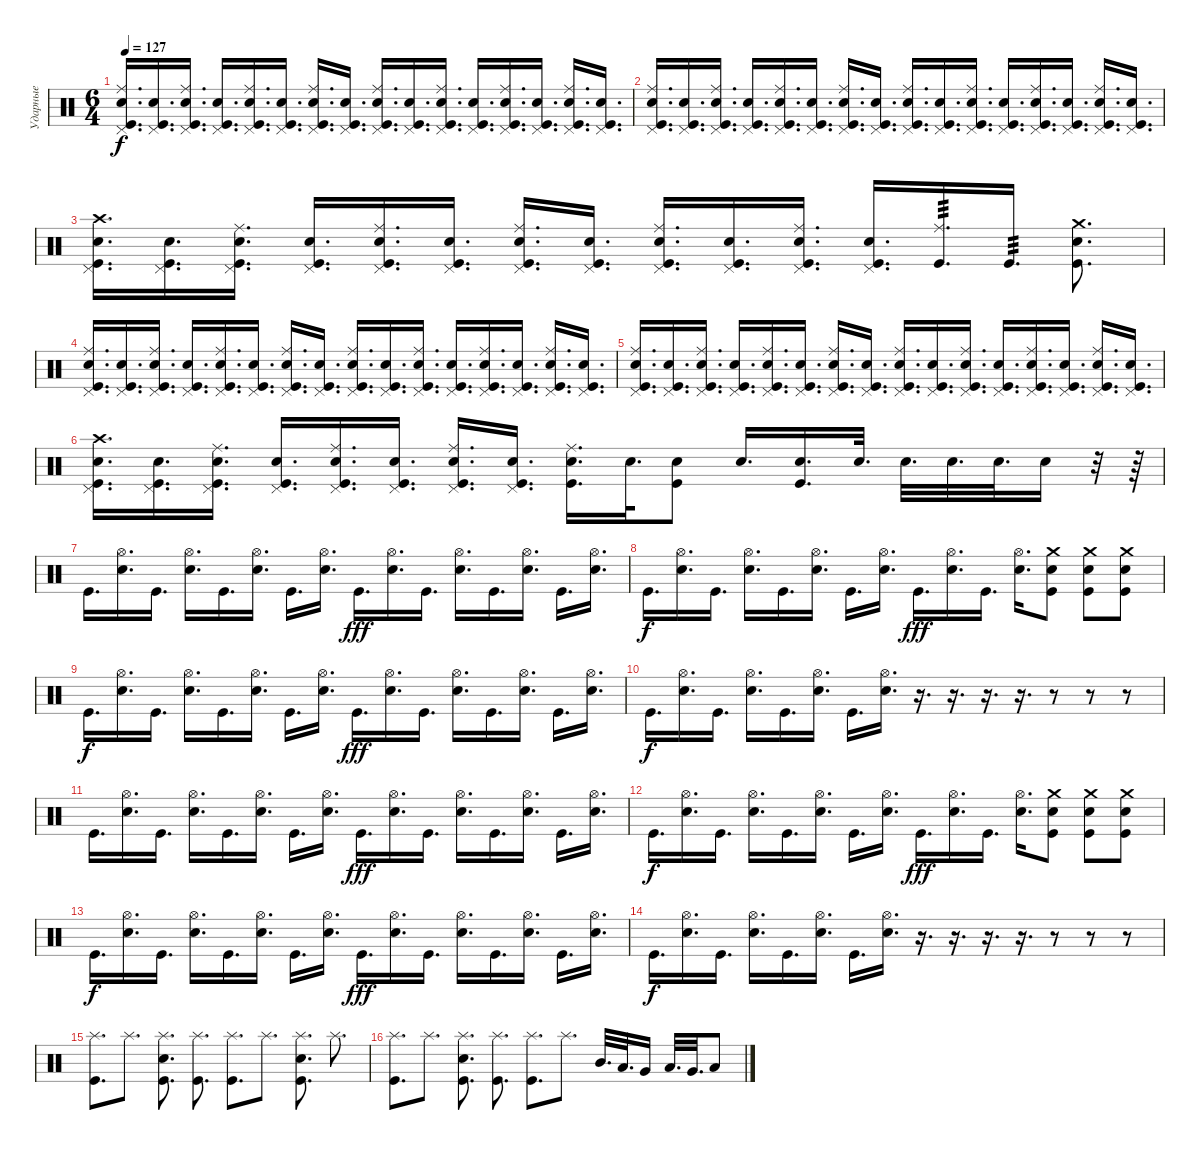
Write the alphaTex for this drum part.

\track ("Ударные" "Ударные") {instrument percussion}
\staff {score}
\articulation defaults
\ts (6 4)
\tempo 127
\clef neutral
\ks c
("Ride (middle)" "Pedal Hi-Hat (hit)" "Electric Snare (hit)" "Kick (hit)").16{d dy f} ("Pedal Hi-Hat (hit)" "Electric Snare (hit)" "Kick (hit)").16{d} ("Ride (middle)" "Pedal Hi-Hat (hit)" "Electric Snare (hit)" "Kick (hit)").16{d} ("Pedal Hi-Hat (hit)" "Electric Snare (hit)" "Kick (hit)").16{d} ("Ride (middle)" "Pedal Hi-Hat (hit)" "Electric Snare (hit)" "Kick (hit)").16{d} ("Pedal Hi-Hat (hit)" "Electric Snare (hit)" "Kick (hit)").16{d} ("Ride (middle)" "Pedal Hi-Hat (hit)" "Electric Snare (hit)" "Kick (hit)").16{d} ("Pedal Hi-Hat (hit)" "Electric Snare (hit)" "Kick (hit)").16{d} ("Ride (middle)" "Pedal Hi-Hat (hit)" "Electric Snare (hit)" "Kick (hit)").16{d} ("Pedal Hi-Hat (hit)" "Electric Snare (hit)" "Kick (hit)").16{d} ("Ride (middle)" "Pedal Hi-Hat (hit)" "Electric Snare (hit)" "Kick (hit)").16{d} ("Pedal Hi-Hat (hit)" "Electric Snare (hit)" "Kick (hit)").16{d} ("Ride (middle)" "Pedal Hi-Hat (hit)" "Electric Snare (hit)" "Kick (hit)").16{d} ("Pedal Hi-Hat (hit)" "Electric Snare (hit)" "Kick (hit)").16{d} ("Ride (middle)" "Pedal Hi-Hat (hit)" "Electric Snare (hit)" "Kick (hit)").16{d} ("Pedal Hi-Hat (hit)" "Electric Snare (hit)" "Kick (hit)").16{d} |
("Ride (middle)" "Pedal Hi-Hat (hit)" "Electric Snare (hit)" "Kick (hit)").16{d} ("Pedal Hi-Hat (hit)" "Electric Snare (hit)" "Kick (hit)").16{d} ("Ride (middle)" "Pedal Hi-Hat (hit)" "Electric Snare (hit)" "Kick (hit)").16{d} ("Pedal Hi-Hat (hit)" "Electric Snare (hit)" "Kick (hit)").16{d} ("Ride (middle)" "Pedal Hi-Hat (hit)" "Electric Snare (hit)" "Kick (hit)").16{d} ("Pedal Hi-Hat (hit)" "Electric Snare (hit)" "Kick (hit)").16{d} ("Ride (middle)" "Pedal Hi-Hat (hit)" "Electric Snare (hit)" "Kick (hit)").16{d} ("Pedal Hi-Hat (hit)" "Electric Snare (hit)" "Kick (hit)").16{d} ("Ride (middle)" "Pedal Hi-Hat (hit)" "Electric Snare (hit)" "Kick (hit)").16{d} ("Pedal Hi-Hat (hit)" "Electric Snare (hit)" "Kick (hit)").16{d} ("Ride (middle)" "Pedal Hi-Hat (hit)" "Electric Snare (hit)" "Kick (hit)").16{d} ("Pedal Hi-Hat (hit)" "Electric Snare (hit)" "Kick (hit)").16{d} ("Ride (middle)" "Pedal Hi-Hat (hit)" "Electric Snare (hit)" "Kick (hit)").16{d} ("Pedal Hi-Hat (hit)" "Electric Snare (hit)" "Kick (hit)").16{d} ("Ride (middle)" "Pedal Hi-Hat (hit)" "Electric Snare (hit)" "Kick (hit)").16{d} ("Pedal Hi-Hat (hit)" "Electric Snare (hit)" "Kick (hit)").16{d} |
("Crash high (hit)" "Pedal Hi-Hat (hit)" "Electric Snare (hit)" "Kick (hit)").16{d} ("Pedal Hi-Hat (hit)" "Electric Snare (hit)" "Kick (hit)").16{d} ("Ride (middle)" "Pedal Hi-Hat (hit)" "Electric Snare (hit)" "Kick (hit)").16{d} ("Pedal Hi-Hat (hit)" "Electric Snare (hit)" "Kick (hit)").16{d} ("Ride (middle)" "Pedal Hi-Hat (hit)" "Electric Snare (hit)" "Kick (hit)").16{d} ("Pedal Hi-Hat (hit)" "Electric Snare (hit)" "Kick (hit)").16{d} ("Ride (middle)" "Pedal Hi-Hat (hit)" "Electric Snare (hit)" "Kick (hit)").16{d} ("Pedal Hi-Hat (hit)" "Electric Snare (hit)" "Kick (hit)").16{d} ("Ride (middle)" "Pedal Hi-Hat (hit)" "Electric Snare (hit)" "Kick (hit)").16{d} ("Pedal Hi-Hat (hit)" "Electric Snare (hit)" "Kick (hit)").16{d} ("Ride (middle)" "Pedal Hi-Hat (hit)" "Electric Snare (hit)" "Kick (hit)").16{d} ("Pedal Hi-Hat (hit)" "Electric Snare (hit)" "Kick (hit)").16{d} ("Ride (middle)" "Kick (hit)").16{d tp 3} "Kick (hit)".16{d tp 3} ("Crash medium (hit)" "Electric Snare (hit)" "Kick (hit)").8{d} |
("Ride (middle)" "Pedal Hi-Hat (hit)" "Electric Snare (hit)" "Kick (hit)").16{d} ("Pedal Hi-Hat (hit)" "Electric Snare (hit)" "Kick (hit)").16{d} ("Ride (middle)" "Pedal Hi-Hat (hit)" "Electric Snare (hit)" "Kick (hit)").16{d} ("Pedal Hi-Hat (hit)" "Electric Snare (hit)" "Kick (hit)").16{d} ("Ride (middle)" "Pedal Hi-Hat (hit)" "Electric Snare (hit)" "Kick (hit)").16{d} ("Pedal Hi-Hat (hit)" "Electric Snare (hit)" "Kick (hit)").16{d} ("Ride (middle)" "Pedal Hi-Hat (hit)" "Electric Snare (hit)" "Kick (hit)").16{d} ("Pedal Hi-Hat (hit)" "Electric Snare (hit)" "Kick (hit)").16{d} ("Ride (middle)" "Pedal Hi-Hat (hit)" "Electric Snare (hit)" "Kick (hit)").16{d} ("Pedal Hi-Hat (hit)" "Electric Snare (hit)" "Kick (hit)").16{d} ("Ride (middle)" "Pedal Hi-Hat (hit)" "Electric Snare (hit)" "Kick (hit)").16{d} ("Pedal Hi-Hat (hit)" "Electric Snare (hit)" "Kick (hit)").16{d} ("Ride (middle)" "Pedal Hi-Hat (hit)" "Electric Snare (hit)" "Kick (hit)").16{d} ("Pedal Hi-Hat (hit)" "Electric Snare (hit)" "Kick (hit)").16{d} ("Ride (middle)" "Pedal Hi-Hat (hit)" "Electric Snare (hit)" "Kick (hit)").16{d} ("Pedal Hi-Hat (hit)" "Electric Snare (hit)" "Kick (hit)").16{d} |
("Ride (middle)" "Pedal Hi-Hat (hit)" "Electric Snare (hit)" "Kick (hit)").16{d} ("Pedal Hi-Hat (hit)" "Electric Snare (hit)" "Kick (hit)").16{d} ("Ride (middle)" "Pedal Hi-Hat (hit)" "Electric Snare (hit)" "Kick (hit)").16{d} ("Pedal Hi-Hat (hit)" "Electric Snare (hit)" "Kick (hit)").16{d} ("Ride (middle)" "Pedal Hi-Hat (hit)" "Electric Snare (hit)" "Kick (hit)").16{d} ("Pedal Hi-Hat (hit)" "Electric Snare (hit)" "Kick (hit)").16{d} ("Ride (middle)" "Pedal Hi-Hat (hit)" "Electric Snare (hit)" "Kick (hit)").16{d} ("Pedal Hi-Hat (hit)" "Electric Snare (hit)" "Kick (hit)").16{d} ("Ride (middle)" "Pedal Hi-Hat (hit)" "Electric Snare (hit)" "Kick (hit)").16{d} ("Pedal Hi-Hat (hit)" "Electric Snare (hit)" "Kick (hit)").16{d} ("Ride (middle)" "Pedal Hi-Hat (hit)" "Electric Snare (hit)" "Kick (hit)").16{d} ("Pedal Hi-Hat (hit)" "Electric Snare (hit)" "Kick (hit)").16{d} ("Ride (middle)" "Pedal Hi-Hat (hit)" "Electric Snare (hit)" "Kick (hit)").16{d} ("Pedal Hi-Hat (hit)" "Electric Snare (hit)" "Kick (hit)").16{d} ("Ride (middle)" "Pedal Hi-Hat (hit)" "Electric Snare (hit)" "Kick (hit)").16{d} ("Pedal Hi-Hat (hit)" "Electric Snare (hit)" "Kick (hit)").16{d} |
("Crash high (hit)" "Pedal Hi-Hat (hit)" "Electric Snare (hit)" "Kick (hit)").16{d} ("Pedal Hi-Hat (hit)" "Electric Snare (hit)" "Kick (hit)").16{d} ("Ride (middle)" "Pedal Hi-Hat (hit)" "Electric Snare (hit)" "Kick (hit)").16{d} ("Pedal Hi-Hat (hit)" "Electric Snare (hit)" "Kick (hit)").16{d} ("Ride (middle)" "Pedal Hi-Hat (hit)" "Electric Snare (hit)" "Kick (hit)").16{d} ("Pedal Hi-Hat (hit)" "Electric Snare (hit)" "Kick (hit)").16{d} ("Ride (middle)" "Pedal Hi-Hat (hit)" "Electric Snare (hit)" "Kick (hit)").16{d} ("Pedal Hi-Hat (hit)" "Electric Snare (hit)" "Kick (hit)").16{d} ("Ride (middle)" "Electric Snare (hit)" "Kick (hit)").16{d} "Electric Snare (hit)".32{d} ("Electric Snare (hit)" "Kick (hit)").8 "Electric Snare (hit)".16{d} ("Electric Snare (hit)" "Kick (hit)").16{d} "Electric Snare (hit)".32{d} "Electric Snare (hit)".32{d} "Electric Snare (hit)".32{d} "Electric Snare (hit)".32{d} "Electric Snare (hit)".16 r.32 r.64 |
"Kick (hit)".16{d} ("Hi-Hat (open)" "Electric Snare (hit)").16{d} "Kick (hit)".16{d} ("Hi-Hat (open)" "Electric Snare (hit)").16{d} "Kick (hit)".16{d} ("Hi-Hat (open)" "Electric Snare (hit)").16{d} "Kick (hit)".16{d} ("Hi-Hat (open)" "Electric Snare (hit)").16{d} "Kick (hit)".16{d dy fff} ("Hi-Hat (open)" "Electric Snare (hit)").16{d} "Kick (hit)".16{d} ("Hi-Hat (open)" "Electric Snare (hit)").16{d} "Kick (hit)".16{d} ("Hi-Hat (open)" "Electric Snare (hit)").16{d} "Kick (hit)".16{d} ("Hi-Hat (open)" "Electric Snare (hit)").16{d} |
"Kick (hit)".16{d dy f} ("Hi-Hat (open)" "Electric Snare (hit)").16{d} "Kick (hit)".16{d} ("Hi-Hat (open)" "Electric Snare (hit)").16{d} "Kick (hit)".16{d} ("Hi-Hat (open)" "Electric Snare (hit)").16{d} "Kick (hit)".16{d} ("Hi-Hat (open)" "Electric Snare (hit)").16{d} "Kick (hit)".16{d dy fff} ("Hi-Hat (open)" "Electric Snare (hit)").16{d} "Kick (hit)".16{d} ("Hi-Hat (open)" "Electric Snare (hit)").16{d} ("Crash medium (hit)" "Electric Snare (hit)" "Kick (hit)").8 ("Crash medium (hit)" "Electric Snare (hit)" "Kick (hit)").8 ("Crash medium (hit)" "Electric Snare (hit)" "Kick (hit)").8 |
"Kick (hit)".16{d dy f} ("Hi-Hat (open)" "Electric Snare (hit)").16{d} "Kick (hit)".16{d} ("Hi-Hat (open)" "Electric Snare (hit)").16{d} "Kick (hit)".16{d} ("Hi-Hat (open)" "Electric Snare (hit)").16{d} "Kick (hit)".16{d} ("Hi-Hat (open)" "Electric Snare (hit)").16{d} "Kick (hit)".16{d dy fff} ("Hi-Hat (open)" "Electric Snare (hit)").16{d} "Kick (hit)".16{d} ("Hi-Hat (open)" "Electric Snare (hit)").16{d} "Kick (hit)".16{d} ("Hi-Hat (open)" "Electric Snare (hit)").16{d} "Kick (hit)".16{d} ("Hi-Hat (open)" "Electric Snare (hit)").16{d} |
"Kick (hit)".16{d dy f} ("Hi-Hat (open)" "Electric Snare (hit)").16{d} "Kick (hit)".16{d} ("Hi-Hat (open)" "Electric Snare (hit)").16{d} "Kick (hit)".16{d} ("Hi-Hat (open)" "Electric Snare (hit)").16{d} "Kick (hit)".16{d} ("Hi-Hat (open)" "Electric Snare (hit)").16{d} r.16{d} r.16{d} r.16{d} r.16{d} r.8 r.8 r.8 |
"Kick (hit)".16{d} ("Hi-Hat (open)" "Electric Snare (hit)").16{d} "Kick (hit)".16{d} ("Hi-Hat (open)" "Electric Snare (hit)").16{d} "Kick (hit)".16{d} ("Hi-Hat (open)" "Electric Snare (hit)").16{d} "Kick (hit)".16{d} ("Hi-Hat (open)" "Electric Snare (hit)").16{d} "Kick (hit)".16{d dy fff} ("Hi-Hat (open)" "Electric Snare (hit)").16{d} "Kick (hit)".16{d} ("Hi-Hat (open)" "Electric Snare (hit)").16{d} "Kick (hit)".16{d} ("Hi-Hat (open)" "Electric Snare (hit)").16{d} "Kick (hit)".16{d} ("Hi-Hat (open)" "Electric Snare (hit)").16{d} |
"Kick (hit)".16{d dy f} ("Hi-Hat (open)" "Electric Snare (hit)").16{d} "Kick (hit)".16{d} ("Hi-Hat (open)" "Electric Snare (hit)").16{d} "Kick (hit)".16{d} ("Hi-Hat (open)" "Electric Snare (hit)").16{d} "Kick (hit)".16{d} ("Hi-Hat (open)" "Electric Snare (hit)").16{d} "Kick (hit)".16{d dy fff} ("Hi-Hat (open)" "Electric Snare (hit)").16{d} "Kick (hit)".16{d} ("Hi-Hat (open)" "Electric Snare (hit)").16{d} ("Crash medium (hit)" "Electric Snare (hit)" "Kick (hit)").8 ("Crash medium (hit)" "Electric Snare (hit)" "Kick (hit)").8 ("Crash medium (hit)" "Electric Snare (hit)" "Kick (hit)").8 |
"Kick (hit)".16{d dy f} ("Hi-Hat (open)" "Electric Snare (hit)").16{d} "Kick (hit)".16{d} ("Hi-Hat (open)" "Electric Snare (hit)").16{d} "Kick (hit)".16{d} ("Hi-Hat (open)" "Electric Snare (hit)").16{d} "Kick (hit)".16{d} ("Hi-Hat (open)" "Electric Snare (hit)").16{d} "Kick (hit)".16{d dy fff} ("Hi-Hat (open)" "Electric Snare (hit)").16{d} "Kick (hit)".16{d} ("Hi-Hat (open)" "Electric Snare (hit)").16{d} "Kick (hit)".16{d} ("Hi-Hat (open)" "Electric Snare (hit)").16{d} "Kick (hit)".16{d} ("Hi-Hat (open)" "Electric Snare (hit)").16{d} |
"Kick (hit)".16{d dy f} ("Hi-Hat (open)" "Electric Snare (hit)").16{d} "Kick (hit)".16{d} ("Hi-Hat (open)" "Electric Snare (hit)").16{d} "Kick (hit)".16{d} ("Hi-Hat (open)" "Electric Snare (hit)").16{d} "Kick (hit)".16{d} ("Hi-Hat (open)" "Electric Snare (hit)").16{d} r.16{d} r.16{d} r.16{d} r.16{d} r.8 r.8 r.8 |
("Splash (hit)" "Kick (hit)").8{d} "Splash (hit)".8{d} ("Splash (hit)" "Electric Snare (hit)" "Kick (hit)").8{d} ("Splash (hit)" "Kick (hit)").8{d} ("Splash (hit)" "Kick (hit)").8{d} "Splash (hit)".8{d} ("Splash (hit)" "Electric Snare (hit)" "Kick (hit)").8{d} "Splash (hit)".8{d} |
("Splash (hit)" "Kick (hit)").8{d} "Splash (hit)".8{d} ("Splash (hit)" "Electric Snare (hit)" "Kick (hit)").8{d} ("Splash (hit)" "Kick (hit)").8{d} ("Splash (hit)" "Kick (hit)").8{d} "Splash (hit)".8{d} "Mid Tom (hit)".32{d} "Low Tom (hit)".32{d} "Very Low Tom (hit)".16 "Low Tom (hit)".32{d} "Very Low Tom (hit)".32{d} "Low Floor Tom (hit)".8
